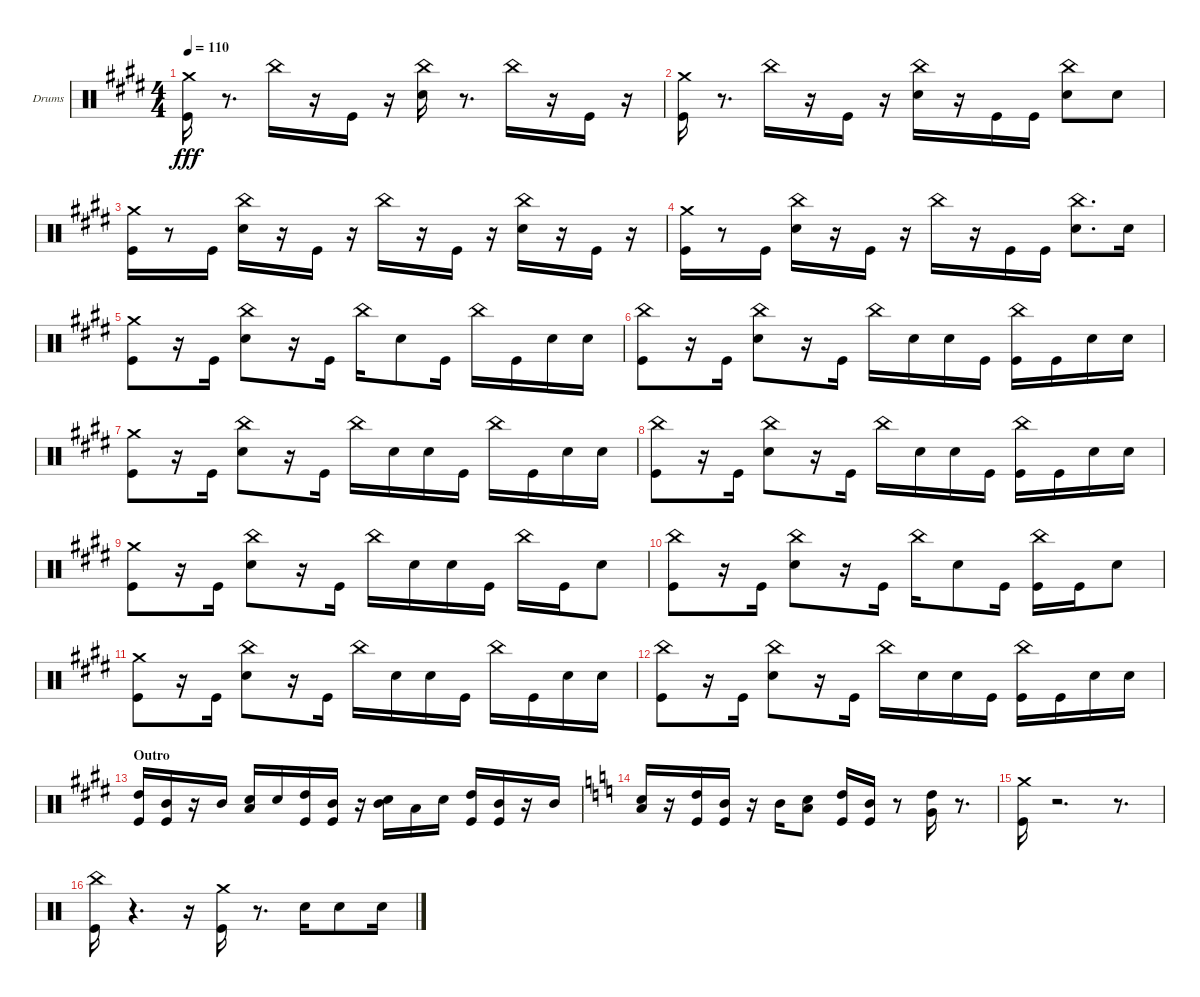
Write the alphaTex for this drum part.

\bracketExtendMode groupsimilarinstruments
\firstSystemTrackNameOrientation horizontal
\otherSystemsTrackNameOrientation horizontal
\track ("Drumkit" "Drums") {instrument percussion}
\staff {score}
\articulation defaults
\ts (4 4)
\tempo 110
\clef neutral
\scale
0.333333
\ks c#minor
("Kick (hit)" "Crash medium (hit)").16{dy fff} r.8{d} "China (hit)".16 r.16 "Kick (hit)".16 r.16 ("China (hit)" "Snare (hit) 2").16 r.8{d} "China (hit)".16 r.16 "Kick (hit)".16 r.16 |
\scale
0.333333 ("Kick (hit)" "Crash medium (hit)").16 r.8{d} "China (hit)".16 r.16 "Kick (hit)".16 r.16 ("Snare (hit) 2" "China (hit)").16 r.16 "Kick (hit)".16 "Kick (hit)".16 ("China (hit)" "Snare (hit) 2").8 "Snare (hit) 2".8 |
\scale
0.333333 ("Kick (hit)" "Crash medium (hit)").16 r.8 "Kick (hit)".16 ("China (hit)" "Snare (hit) 2").16 r.16 "Kick (hit)".16 r.16 "China (hit)".16 r.16 "Kick (hit)".16 r.16 ("China (hit)" "Snare (hit) 2").16 r.16 "Kick (hit)".16 r.16 |
\scale
0.333333 ("Kick (hit)" "Crash medium (hit)").16 r.8 "Kick (hit)".16 ("China (hit)" "Snare (hit) 2").16 r.16 "Kick (hit)".16 r.16 "China (hit)".16 r.16 "Kick (hit)".16 "Kick (hit)".16 ("China (hit)" "Snare (hit) 2").8{d} "Snare (hit) 2".16 |
\scale
0.333333 ("Crash medium (hit)" "Kick (hit)").8 r.16 "Kick (hit)".16 ("Snare (hit) 2" "China (hit)").8 r.16 "Kick (hit)".16 "China (hit)".16 "Snare (hit) 2".8 "Kick (hit)".16 "China (hit)".16 "Kick (hit)".16 "Snare (hit) 2".16 "Snare (hit) 2".16 |
\scale
0.333333 ("Kick (hit)" "China (hit)").8 r.16 "Kick (hit)".16 ("Snare (hit) 2" "China (hit)").8 r.16 "Kick (hit)".16 "China (hit)".16 "Snare (hit) 2".16 "Snare (hit) 2".16 "Kick (hit)".16 ("China (hit)" "Kick (hit)").16 "Kick (hit)".16 "Snare (hit) 2".16 "Snare (hit) 2".16 |
\scale
0.333333 ("Crash medium (hit)" "Kick (hit)").8 r.16 "Kick (hit)".16 ("Snare (hit) 2" "China (hit)").8 r.16 "Kick (hit)".16 "China (hit)".16 "Snare (hit) 2".16 "Snare (hit) 2".16 "Kick (hit)".16 "China (hit)".16 "Kick (hit)".16 "Snare (hit) 2".16 "Snare (hit) 2".16 |
\scale
0.333333 ("China (hit)" "Kick (hit)").8 r.16 "Kick (hit)".16 ("Snare (hit) 2" "China (hit)").8 r.16 "Kick (hit)".16 "China (hit)".16 "Snare (hit) 2".16 "Snare (hit) 2".16 "Kick (hit)".16 ("Kick (hit)" "China (hit)").16 "Kick (hit)".16 "Snare (hit) 2".16 "Snare (hit) 2".16 |
\scale
0.333333 ("Crash medium (hit)" "Kick (hit)").8 r.16 "Kick (hit)".16 ("Snare (hit) 2" "China (hit)").8 r.16 "Kick (hit)".16 "China (hit)".16 "Snare (hit) 2".16 "Snare (hit) 2".16 "Kick (hit)".16 "China (hit)".16 "Kick (hit)".16 "Snare (hit) 2".8 |
\scale
0.333333 ("Kick (hit)" "China (hit)").8 r.16 "Kick (hit)".16 ("Snare (hit) 2" "China (hit)").8 r.16 "Kick (hit)".16 "China (hit)".16 "Snare (hit) 2".8 "Kick (hit)".16 ("China (hit)" "Kick (hit)").16 "Kick (hit)".16 "Snare (hit) 2".8 |
\scale
0.333333 ("Crash medium (hit)" "Kick (hit)").8 r.16 "Kick (hit)".16 ("Snare (hit) 2" "China (hit)").8 r.16 "Kick (hit)".16 "China (hit)".16 "Snare (hit) 2".16 "Snare (hit) 2".16 "Kick (hit)".16 "China (hit)".16 "Kick (hit)".16 "Snare (hit) 2".16 "Snare (hit) 2".16 |
\scale
0.333333 ("China (hit)" "Kick (hit)").8 r.16 "Kick (hit)".16 ("Snare (hit) 2" "China (hit)").8 r.16 "Kick (hit)".16 "China (hit)".16 "Snare (hit) 2".16 "Snare (hit) 2".16 "Kick (hit)".16 ("Kick (hit)" "China (hit)").16 "Kick (hit)".16 "Snare (hit) 2".16 "Snare (hit) 2".16 |
\section ("" "Outro")
\scale
0.333333 ("High Tom (hit)" "Kick (hit)").16 ("Mid Tom (hit)" "Kick (hit)").16 r.16 "Mid Tom (hit)".16 ("Low Tom (hit)" "Snare (hit) 2").16 "Snare (hit) 2".16 ("High Tom (hit)" "Kick (hit)").16 ("Mid Tom (hit)" "Kick (hit)").16 r.16 ("Mid Tom (hit)" "Snare (hit) 2").16 "Low Tom (hit)".16 "Snare (hit) 2".16 ("High Tom (hit)" "Kick (hit)").16 ("Mid Tom (hit)" "Kick (hit)").16 r.16 "Mid Tom (hit)".16 |
\scale
0.483871
\ks aminor
("Snare (hit) 2" "Low Tom (hit)").16 r.16 ("High Tom (hit)" "Kick (hit)").16 ("Mid Tom (hit)" "Kick (hit)").16 r.16 "Mid Tom (hit)".16 ("Low Tom (hit)" "Snare (hit) 2").8 ("High Tom (hit)" "Kick (hit)").16 ("Mid Tom (hit)" "Kick (hit)").16 r.8 ("Very Low Tom (hit)" "High Tom (hit)").16 r.8{d} |
\scale
0.258065 ("Kick (hit)" "Crash medium (hit)").16 r.2{d} r.8{d} |
\scale
0.258065 ("Kick (hit)" "China (hit)").16 r.4{d} r.16 ("Kick (hit)" "Crash medium (hit)").16 r.8{d} "Snare (hit) 2".16 "Snare (hit) 2".8 "Snare (hit) 2".16
